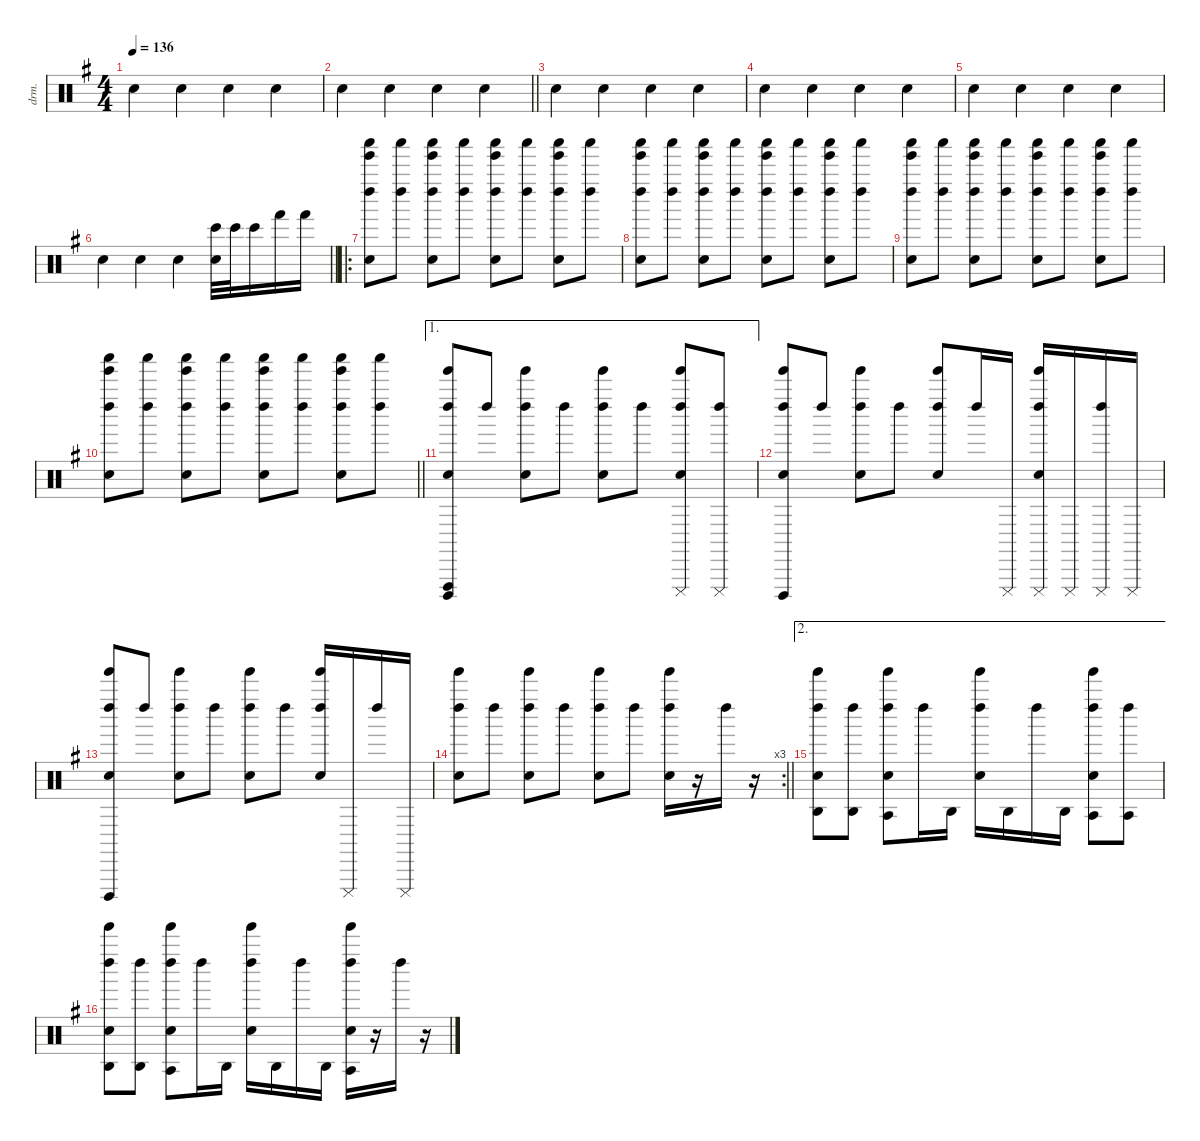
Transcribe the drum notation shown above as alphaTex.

\defaultSystemsLayout 4
\hideDynamics
\bracketExtendMode nobrackets
\otherSystemsTrackNameOrientation horizontal
\track ("Percussions" "drm.") {instrument percussion}
\staff {score}
\articulation defaults
\ts (4 4)
\tempo 136
\clef neutral
\ks g "Hand Clap (hit)"{acc forcenatural}.4{dy f beam Down} "Hand Clap (hit)"{acc forcenatural}.4{beam Down} "Hand Clap (hit)"{acc forcenatural}.4{beam Down} "Hand Clap (hit)"{acc forcenatural}.4{beam Down}
|
\barLineRight lightlight "Hand Clap (hit)"{acc forcenatural}.4{beam Down} "Hand Clap (hit)"{acc forcenatural}.4{beam Down} "Hand Clap (hit)"{acc forcenatural}.4{beam Down} "Hand Clap (hit)"{acc forcenatural}.4{beam Down}
|
"Hand Clap (hit)"{acc forcenatural}.4{beam Down} "Hand Clap (hit)"{acc forcenatural}.4{beam Down} "Hand Clap (hit)"{acc forcenatural}.4{beam Down} "Hand Clap (hit)"{acc forcenatural}.4{beam Down} |
"Hand Clap (hit)"{acc forcenatural}.4{beam Down} "Hand Clap (hit)"{acc forcenatural}.4{beam Down} "Hand Clap (hit)"{acc forcenatural}.4{beam Down} "Hand Clap (hit)"{acc forcenatural}.4{beam Down} |
"Hand Clap (hit)"{acc forcenatural}.4{beam Down} "Hand Clap (hit)"{acc forcenatural}.4{beam Down} "Hand Clap (hit)"{acc forcenatural}.4{beam Down} "Hand Clap (hit)"{acc forcenatural}.4{beam Down} |
\barLineRight lightlight "Hand Clap (hit)"{acc forcenatural}.4{beam Down} "Hand Clap (hit)"{acc forcenatural}.4{beam Down} "Hand Clap (hit)"{acc forcenatural}.4{beam Down}
("Hand Clap (hit)"{acc forcenatural} "Bongo High (hit)"{acc forcenatural}).32{beam Down} "Bongo High (hit)"{acc forcenatural}.32{beam Down} "Bongo High (hit)"{acc forcenatural}.16{beam Down} "Hand (hit)"{acc forcenatural}.16{beam Down} "Hand (hit)"{acc forcenatural}.16{beam Down} |
\ro
("Jingle Bell (hit)"{acc forcenatural} "Left Maraca (hit)"{acc forcenatural} "Shaker (hit)"{acc forcenatural} "Hand Clap (hit)"{acc forcenatural}).8{beam Down} ("Left Maraca (hit)"{acc forcenatural} "Shaker (hit)"{acc forcenatural}).8{beam Down} ("Jingle Bell (hit)"{acc forcenatural} "Left Maraca (hit)"{acc forcenatural} "Shaker (hit)"{acc forcenatural} "Hand Clap (hit)"{acc forcenatural}).8{beam Down} ("Left Maraca (hit)"{acc forcenatural} "Shaker (hit)"{acc forcenatural}).8{beam Down} ("Jingle Bell (hit)"{acc forcenatural} "Left Maraca (hit)"{acc forcenatural} "Shaker (hit)"{acc forcenatural} "Hand Clap (hit)"{acc forcenatural}).8{beam Down} ("Left Maraca (hit)"{acc forcenatural} "Shaker (hit)"{acc forcenatural}).8{beam Down} ("Jingle Bell (hit)"{acc forcenatural} "Left Maraca (hit)"{acc forcenatural} "Shaker (hit)"{acc forcenatural} "Hand Clap (hit)"{acc forcenatural}).8{beam Down} ("Left Maraca (hit)"{acc forcenatural} "Shaker (hit)"{acc forcenatural}).8{beam Down} |
("Jingle Bell (hit)"{acc forcenatural} "Left Maraca (hit)"{acc forcenatural} "Shaker (hit)"{acc forcenatural} "Hand Clap (hit)"{acc forcenatural}).8{beam Down} ("Left Maraca (hit)"{acc forcenatural} "Shaker (hit)"{acc forcenatural}).8{beam Down} ("Jingle Bell (hit)"{acc forcenatural} "Left Maraca (hit)"{acc forcenatural} "Shaker (hit)"{acc forcenatural} "Hand Clap (hit)"{acc forcenatural}).8{beam Down} ("Left Maraca (hit)"{acc forcenatural} "Shaker (hit)"{acc forcenatural}).8{beam Down} ("Jingle Bell (hit)"{acc forcenatural} "Left Maraca (hit)"{acc forcenatural} "Shaker (hit)"{acc forcenatural} "Hand Clap (hit)"{acc forcenatural}).8{beam Down} ("Left Maraca (hit)"{acc forcenatural} "Shaker (hit)"{acc forcenatural}).8{beam Down} ("Jingle Bell (hit)"{acc forcenatural} "Left Maraca (hit)"{acc forcenatural} "Shaker (hit)"{acc forcenatural} "Hand Clap (hit)"{acc forcenatural}).8{beam Down} ("Left Maraca (hit)"{acc forcenatural} "Shaker (hit)"{acc forcenatural}).8{beam Down} |
("Jingle Bell (hit)"{acc forcenatural} "Left Maraca (hit)"{acc forcenatural} "Shaker (hit)"{acc forcenatural} "Hand Clap (hit)"{acc forcenatural}).8{beam Down} ("Left Maraca (hit)"{acc forcenatural} "Shaker (hit)"{acc forcenatural}).8{beam Down} ("Jingle Bell (hit)"{acc forcenatural} "Left Maraca (hit)"{acc forcenatural} "Shaker (hit)"{acc forcenatural} "Hand Clap (hit)"{acc forcenatural}).8{beam Down} ("Left Maraca (hit)"{acc forcenatural} "Shaker (hit)"{acc forcenatural}).8{beam Down} ("Jingle Bell (hit)"{acc forcenatural} "Left Maraca (hit)"{acc forcenatural} "Shaker (hit)"{acc forcenatural} "Hand Clap (hit)"{acc forcenatural}).8{beam Down} ("Left Maraca (hit)"{acc forcenatural} "Shaker (hit)"{acc forcenatural}).8{beam Down} ("Jingle Bell (hit)"{acc forcenatural} "Left Maraca (hit)"{acc forcenatural} "Shaker (hit)"{acc forcenatural} "Hand Clap (hit)"{acc forcenatural}).8{beam Down} ("Left Maraca (hit)"{acc forcenatural} "Shaker (hit)"{acc forcenatural}).8{beam Down} |
\barLineRight lightlight
("Jingle Bell (hit)"{acc forcenatural} "Left Maraca (hit)"{acc forcenatural} "Shaker (hit)"{acc forcenatural} "Hand Clap (hit)"{acc forcenatural}).8{beam Down} ("Left Maraca (hit)"{acc forcenatural} "Shaker (hit)"{acc forcenatural}).8{beam Down} ("Jingle Bell (hit)"{acc forcenatural} "Left Maraca (hit)"{acc forcenatural} "Shaker (hit)"{acc forcenatural} "Hand Clap (hit)"{acc forcenatural}).8{beam Down} ("Left Maraca (hit)"{acc forcenatural} "Shaker (hit)"{acc forcenatural}).8{beam Down} ("Jingle Bell (hit)"{acc forcenatural} "Left Maraca (hit)"{acc forcenatural} "Shaker (hit)"{acc forcenatural} "Hand Clap (hit)"{acc forcenatural}).8{beam Down} ("Left Maraca (hit)"{acc forcenatural} "Shaker (hit)"{acc forcenatural}).8{beam Down} ("Jingle Bell (hit)"{acc forcenatural} "Left Maraca (hit)"{acc forcenatural} "Shaker (hit)"{acc forcenatural} "Hand Clap (hit)"{acc forcenatural}).8{beam Down} ("Left Maraca (hit)"{acc forcenatural} "Shaker (hit)"{acc forcenatural}).8{beam Down} |
\ae 1
("Jingle Bell (hit)"{acc forcenatural} "Left Maraca (hit)"{acc forcenatural} "Cuica (open)"{acc forcenatural} "Vibraslap (hit)"{acc forcenatural} "Hand Clap (hit)"{acc forcenatural}).8{beam Up} "Left Maraca (hit)"{acc forcenatural}.8{beam Up} ("Jingle Bell (hit)"{acc forcenatural} "Left Maraca (hit)"{acc forcenatural} "Hand Clap (hit)"{acc forcenatural}).8{beam Down} "Left Maraca (hit)"{acc forcenatural}.8{beam Down} ("Jingle Bell (hit)"{acc forcenatural} "Left Maraca (hit)"{acc forcenatural} "Hand Clap (hit)"{acc forcenatural}).8{beam Down} "Left Maraca (hit)"{acc forcenatural}.8{beam Down} ("Jingle Bell (hit)"{acc forcenatural} "Left Maraca (hit)"{acc forcenatural} "Cuica (mute)"{acc forcenatural} "Hand Clap (hit)"{acc forcenatural}).8{beam Up} ("Left Maraca (hit)"{acc forcenatural} "Cuica (mute)"{acc forcenatural}).8{beam Up} |
("Jingle Bell (hit)"{acc forcenatural} "Left Maraca (hit)"{acc forcenatural} "Cuica (open)"{acc forcenatural} "Hand Clap (hit)"{acc forcenatural}).8{beam Up} "Left Maraca (hit)"{acc forcenatural}.8{beam Up} ("Jingle Bell (hit)"{acc forcenatural} "Left Maraca (hit)"{acc forcenatural} "Hand Clap (hit)"{acc forcenatural}).8{beam Down} "Left Maraca (hit)"{acc forcenatural}.8{beam Down} ("Jingle Bell (hit)"{acc forcenatural} "Left Maraca (hit)"{acc forcenatural} "Hand Clap (hit)"{acc forcenatural}).8{beam Up} "Left Maraca (hit)"{acc forcenatural}.16{beam Up} "Cuica (mute)"{acc forcenatural}.16{beam Up} ("Jingle Bell (hit)"{acc forcenatural} "Left Maraca (hit)"{acc forcenatural} "Cuica (mute)"{acc forcenatural} "Hand Clap (hit)"{acc forcenatural}).16{beam Up} "Cuica (mute)"{acc forcenatural}.16{beam Up} ("Left Maraca (hit)"{acc forcenatural} "Cuica (mute)"{acc forcenatural}).16{beam Up} "Cuica (mute)"{acc forcenatural}.16{beam Up} |
("Jingle Bell (hit)"{acc forcenatural} "Left Maraca (hit)"{acc forcenatural} "Cuica (open)"{acc forcenatural} "Hand Clap (hit)"{acc forcenatural}).8{beam Up} "Left Maraca (hit)"{acc forcenatural}.8{beam Up} ("Jingle Bell (hit)"{acc forcenatural} "Left Maraca (hit)"{acc forcenatural} "Hand Clap (hit)"{acc forcenatural}).8{beam Down} "Left Maraca (hit)"{acc forcenatural}.8{beam Down} ("Jingle Bell (hit)"{acc forcenatural} "Left Maraca (hit)"{acc forcenatural} "Hand Clap (hit)"{acc forcenatural}).8{beam Down} "Left Maraca (hit)"{acc forcenatural}.8{beam Down} ("Jingle Bell (hit)"{acc forcenatural} "Left Maraca (hit)"{acc forcenatural} "Hand Clap (hit)"{acc forcenatural}).16{beam Up} "Cuica (mute)"{acc forcenatural}.16{beam Up} "Left Maraca (hit)"{acc forcenatural}.16{beam Up} "Cuica (mute)"{acc forcenatural}.16{beam Up} |
\rc 3
\barLineRight lightlight
("Jingle Bell (hit)"{acc forcenatural} "Left Maraca (hit)"{acc forcenatural} "Hand Clap (hit)"{acc forcenatural}).8{beam Down} "Left Maraca (hit)"{acc forcenatural}.8{beam Down} ("Jingle Bell (hit)"{acc forcenatural} "Left Maraca (hit)"{acc forcenatural} "Hand Clap (hit)"{acc forcenatural}).8{beam Down} "Left Maraca (hit)"{acc forcenatural}.8{beam Down} ("Jingle Bell (hit)"{acc forcenatural} "Left Maraca (hit)"{acc forcenatural} "Hand Clap (hit)"{acc forcenatural}).8{beam Down} "Left Maraca (hit)"{acc forcenatural}.8{beam Down} ("Jingle Bell (hit)"{acc forcenatural} "Left Maraca (hit)"{acc forcenatural} "Hand Clap (hit)"{acc forcenatural}).16{beam Down} r.16{beam Down} "Left Maraca (hit)"{acc forcenatural}.16{beam Down} r.16{beam Down} |
\ae 2
("Jingle Bell (hit)"{acc forcenatural} "Left Maraca (hit)"{acc forcenatural} "Agogo high (hit)"{acc forcenatural} "Hand Clap (hit)"{acc forcenatural}).8{beam Down} ("Left Maraca (hit)"{acc forcenatural} "Agogo high (hit)"{acc forcenatural}).8{beam Down} ("Jingle Bell (hit)"{acc forcenatural} "Left Maraca (hit)"{acc forcenatural} "Agogo tow (hit)"{acc forcenatural} "Hand Clap (hit)"{acc forcenatural}).8{beam Down} "Left Maraca (hit)"{acc forcenatural}.16{beam Down} "Agogo high (hit)"{acc forcenatural}.16{beam Down} ("Jingle Bell (hit)"{acc forcenatural} "Left Maraca (hit)"{acc forcenatural} "Hand Clap (hit)"{acc forcenatural}).16{beam Down} "Agogo high (hit)"{acc forcenatural}.16{beam Down} "Left Maraca (hit)"{acc forcenatural}.16{beam Down} "Agogo high (hit)"{acc forcenatural}.16{beam Down} ("Jingle Bell (hit)"{acc forcenatural} "Left Maraca (hit)"{acc forcenatural} "Agogo tow (hit)"{acc forcenatural} "Hand Clap (hit)"{acc forcenatural}).8{beam Down} ("Left Maraca (hit)"{acc forcenatural} "Agogo tow (hit)"{acc forcenatural}).8{beam Down} |
("Jingle Bell (hit)"{acc forcenatural} "Left Maraca (hit)"{acc forcenatural} "Agogo high (hit)"{acc forcenatural} "Hand Clap (hit)"{acc forcenatural}).8{beam Down} ("Left Maraca (hit)"{acc forcenatural} "Agogo high (hit)"{acc forcenatural}).8{beam Down} ("Jingle Bell (hit)"{acc forcenatural} "Left Maraca (hit)"{acc forcenatural} "Agogo tow (hit)"{acc forcenatural} "Hand Clap (hit)"{acc forcenatural}).8{beam Down} "Left Maraca (hit)"{acc forcenatural}.16{beam Down} "Agogo high (hit)"{acc forcenatural}.16{beam Down} ("Jingle Bell (hit)"{acc forcenatural} "Left Maraca (hit)"{acc forcenatural} "Hand Clap (hit)"{acc forcenatural}).16{beam Down} "Agogo high (hit)"{acc forcenatural}.16{beam Down} "Left Maraca (hit)"{acc forcenatural}.16{beam Down} "Agogo high (hit)"{acc forcenatural}.16{beam Down} ("Jingle Bell (hit)"{acc forcenatural} "Left Maraca (hit)"{acc forcenatural} "Agogo tow (hit)"{acc forcenatural} "Hand Clap (hit)"{acc forcenatural}).16{beam Down} r.16{beam Down} "Left Maraca (hit)"{acc forcenatural}.16{beam Down} r.16{beam Down}
